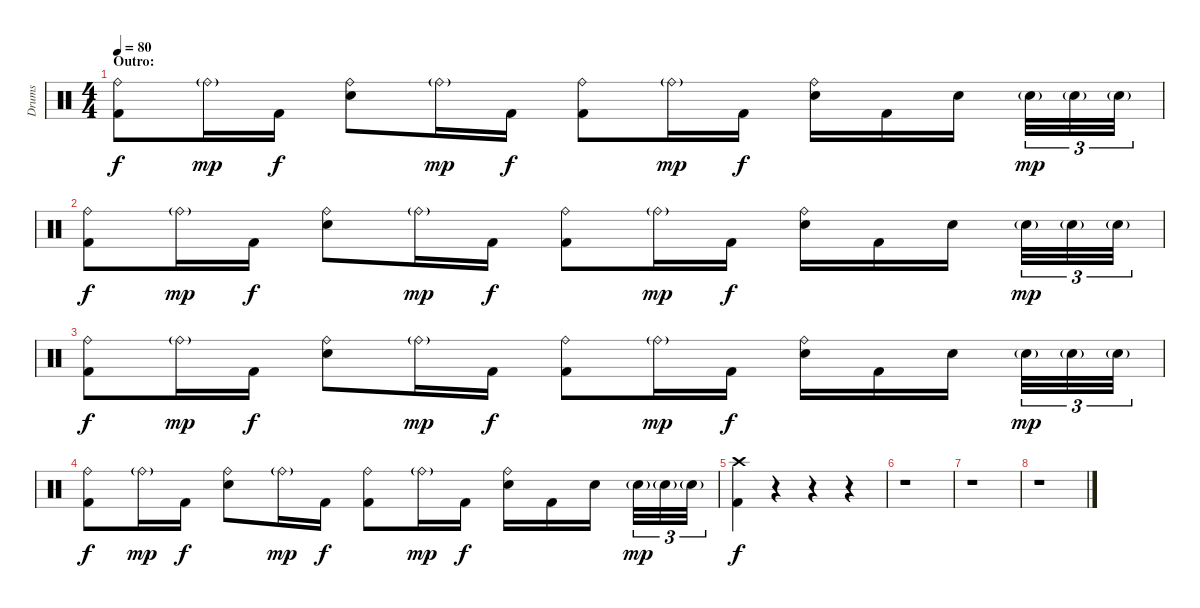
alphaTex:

\track ("Drums" "Drums") {instrument percussion}
\staff {score}
\articulation defaults
\ts (4 4)
\section ("" "Outro:")
\tempo 80
\clef neutral
\ks c
("Ride (bell)" "Kick (hit) 2").8{dy f} "Ride (bell)"{g}.16{dy mp} "Kick (hit) 2".16{dy f} ("Ride (bell)" "Electric Snare (hit)").8 "Ride (bell)"{g}.16{dy mp} "Kick (hit) 2".16{dy f} ("Ride (bell)" "Kick (hit) 2").8 "Ride (bell)"{g}.16{dy mp} "Kick (hit) 2".16{dy f} ("Ride (bell)" "Electric Snare (hit)").16 "Kick (hit) 2".16 "Electric Snare (hit)".16 "Electric Snare (hit)"{g}.32{tu (3 2) dy mp} "Electric Snare (hit)"{g}.32{tu (3 2)} "Electric Snare (hit)"{g}.32{tu (3 2)} |
("Ride (bell)" "Kick (hit) 2").8{dy f} "Ride (bell)"{g}.16{dy mp} "Kick (hit) 2".16{dy f} ("Ride (bell)" "Electric Snare (hit)").8 "Ride (bell)"{g}.16{dy mp} "Kick (hit) 2".16{dy f} ("Ride (bell)" "Kick (hit) 2").8 "Ride (bell)"{g}.16{dy mp} "Kick (hit) 2".16{dy f} ("Ride (bell)" "Electric Snare (hit)").16 "Kick (hit) 2".16 "Electric Snare (hit)".16 "Electric Snare (hit)"{g}.32{tu (3 2) dy mp} "Electric Snare (hit)"{g}.32{tu (3 2)} "Electric Snare (hit)"{g}.32{tu (3 2)} |
("Ride (bell)" "Kick (hit) 2").8{dy f} "Ride (bell)"{g}.16{dy mp} "Kick (hit) 2".16{dy f} ("Ride (bell)" "Electric Snare (hit)").8 "Ride (bell)"{g}.16{dy mp} "Kick (hit) 2".16{dy f} ("Ride (bell)" "Kick (hit) 2").8 "Ride (bell)"{g}.16{dy mp} "Kick (hit) 2".16{dy f} ("Ride (bell)" "Electric Snare (hit)").16 "Kick (hit) 2".16 "Electric Snare (hit)".16 "Electric Snare (hit)"{g}.32{tu (3 2) dy mp} "Electric Snare (hit)"{g}.32{tu (3 2)} "Electric Snare (hit)"{g}.32{tu (3 2)} |
("Ride (bell)" "Kick (hit) 2").8{dy f} "Ride (bell)"{g}.16{dy mp} "Kick (hit) 2".16{dy f} ("Ride (bell)" "Electric Snare (hit)").8 "Ride (bell)"{g}.16{dy mp} "Kick (hit) 2".16{dy f} ("Ride (bell)" "Kick (hit) 2").8 "Ride (bell)"{g}.16{dy mp} "Kick (hit) 2".16{dy f} ("Ride (bell)" "Electric Snare (hit)").16 "Kick (hit) 2".16 "Electric Snare (hit)".16 "Electric Snare (hit)"{g}.32{tu (3 2) dy mp} "Electric Snare (hit)"{g}.32{tu (3 2)} "Electric Snare (hit)"{g}.32{tu (3 2)} |
("Crash high (hit)" "Kick (hit) 2").4{dy f} r.4 r.4 r.4 |
r.1 |
r.1 |
r.1
